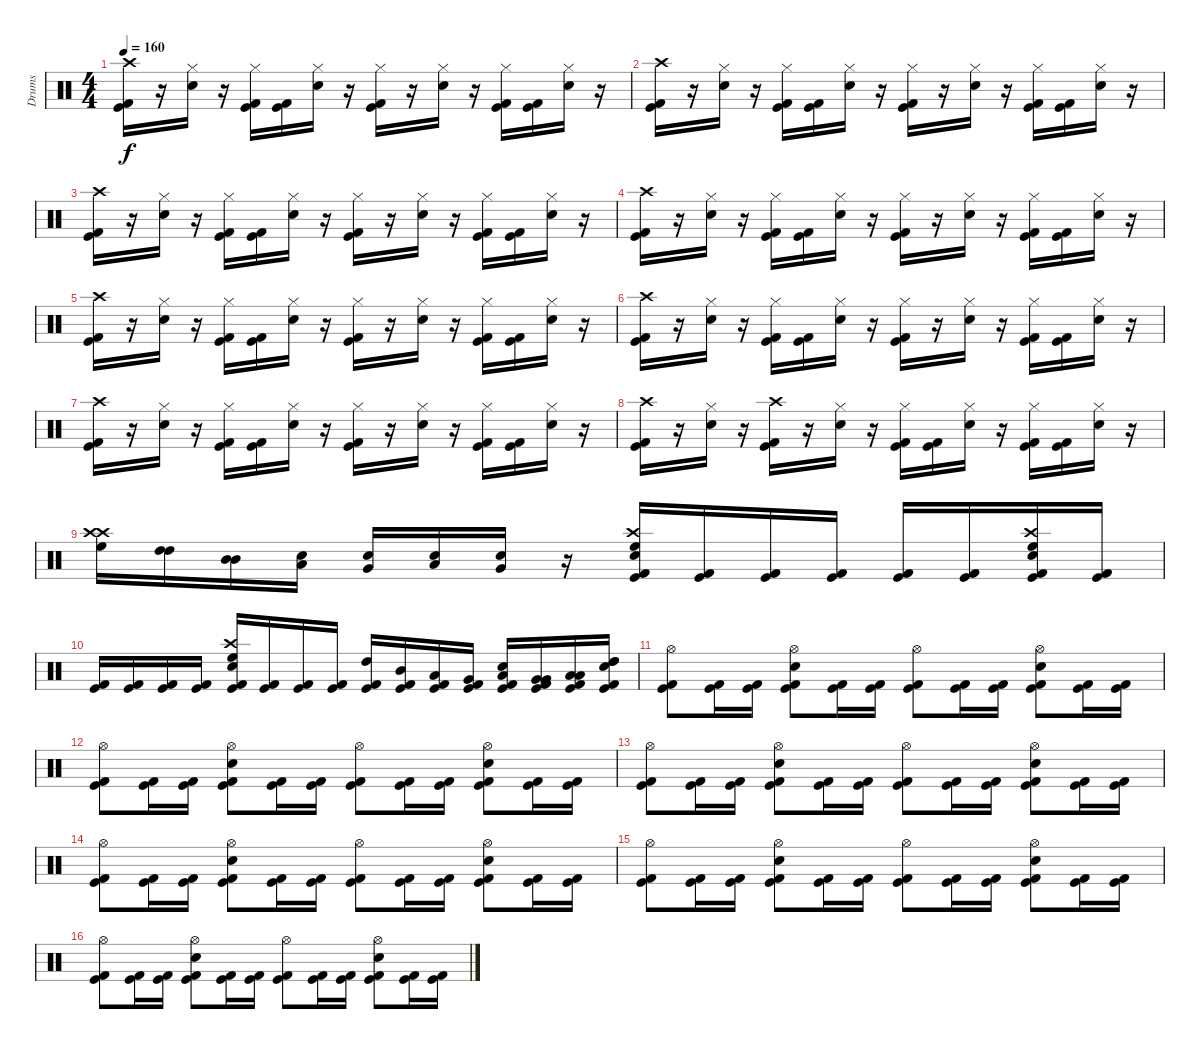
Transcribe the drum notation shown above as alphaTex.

\track ("Drums" "Drums") {instrument percussion}
\staff {score}
\articulation defaults
\ts (4 4)
\tempo 160
\clef neutral
\ks c
("Kick (hit) 2" "Kick (hit)" "Crash high (hit)").16{dy f} r.16 ("Electric Snare (hit)" "Hi-Hat (closed)").16 r.16 ("Kick (hit) 2" "Kick (hit)" "Hi-Hat (closed)").16 ("Kick (hit) 2" "Kick (hit)").16 ("Electric Snare (hit)" "Hi-Hat (closed)").16 r.16 ("Kick (hit) 2" "Kick (hit)" "Hi-Hat (closed)").16 r.16 ("Electric Snare (hit)" "Hi-Hat (closed)").16 r.16 ("Kick (hit) 2" "Kick (hit)" "Hi-Hat (closed)").16 ("Kick (hit) 2" "Kick (hit)").16 ("Electric Snare (hit)" "Hi-Hat (closed)").16 r.16 |
("Kick (hit) 2" "Kick (hit)" "Crash high (hit)").16 r.16 ("Electric Snare (hit)" "Hi-Hat (closed)").16 r.16 ("Kick (hit) 2" "Kick (hit)" "Hi-Hat (closed)").16 ("Kick (hit) 2" "Kick (hit)").16 ("Electric Snare (hit)" "Hi-Hat (closed)").16 r.16 ("Kick (hit) 2" "Kick (hit)" "Hi-Hat (closed)").16 r.16 ("Electric Snare (hit)" "Hi-Hat (closed)").16 r.16 ("Kick (hit) 2" "Kick (hit)" "Hi-Hat (closed)").16 ("Kick (hit) 2" "Kick (hit)").16 ("Electric Snare (hit)" "Hi-Hat (closed)").16 r.16 |
("Kick (hit) 2" "Kick (hit)" "Crash high (hit)").16 r.16 ("Electric Snare (hit)" "Hi-Hat (closed)").16 r.16 ("Kick (hit) 2" "Kick (hit)" "Hi-Hat (closed)").16 ("Kick (hit) 2" "Kick (hit)").16 ("Electric Snare (hit)" "Hi-Hat (closed)").16 r.16 ("Kick (hit) 2" "Kick (hit)" "Hi-Hat (closed)").16 r.16 ("Electric Snare (hit)" "Hi-Hat (closed)").16 r.16 ("Kick (hit) 2" "Kick (hit)" "Hi-Hat (closed)").16 ("Kick (hit) 2" "Kick (hit)").16 ("Electric Snare (hit)" "Hi-Hat (closed)").16 r.16 |
("Kick (hit) 2" "Kick (hit)" "Crash high (hit)").16 r.16 ("Electric Snare (hit)" "Hi-Hat (closed)").16 r.16 ("Kick (hit) 2" "Kick (hit)" "Hi-Hat (closed)").16 ("Kick (hit) 2" "Kick (hit)").16 ("Electric Snare (hit)" "Hi-Hat (closed)").16 r.16 ("Kick (hit) 2" "Kick (hit)" "Hi-Hat (closed)").16 r.16 ("Electric Snare (hit)" "Hi-Hat (closed)").16 r.16 ("Kick (hit) 2" "Kick (hit)" "Hi-Hat (closed)").16 ("Kick (hit) 2" "Kick (hit)").16 ("Electric Snare (hit)" "Hi-Hat (closed)").16 r.16 |
("Kick (hit) 2" "Kick (hit)" "Crash high (hit)").16 r.16 ("Electric Snare (hit)" "Hi-Hat (closed)").16 r.16 ("Kick (hit) 2" "Kick (hit)" "Hi-Hat (closed)").16 ("Kick (hit) 2" "Kick (hit)").16 ("Electric Snare (hit)" "Hi-Hat (closed)").16 r.16 ("Kick (hit) 2" "Kick (hit)" "Hi-Hat (closed)").16 r.16 ("Electric Snare (hit)" "Hi-Hat (closed)").16 r.16 ("Kick (hit) 2" "Kick (hit)" "Hi-Hat (closed)").16 ("Kick (hit) 2" "Kick (hit)").16 ("Electric Snare (hit)" "Hi-Hat (closed)").16 r.16 |
("Kick (hit) 2" "Kick (hit)" "Crash high (hit)").16 r.16 ("Electric Snare (hit)" "Hi-Hat (closed)").16 r.16 ("Kick (hit) 2" "Kick (hit)" "Hi-Hat (closed)").16 ("Kick (hit) 2" "Kick (hit)").16 ("Electric Snare (hit)" "Hi-Hat (closed)").16 r.16 ("Kick (hit) 2" "Kick (hit)" "Hi-Hat (closed)").16 r.16 ("Electric Snare (hit)" "Hi-Hat (closed)").16 r.16 ("Kick (hit) 2" "Kick (hit)" "Hi-Hat (closed)").16 ("Kick (hit) 2" "Kick (hit)").16 ("Electric Snare (hit)" "Hi-Hat (closed)").16 r.16 |
("Kick (hit) 2" "Kick (hit)" "Crash high (hit)").16 r.16 ("Electric Snare (hit)" "Hi-Hat (closed)").16 r.16 ("Kick (hit) 2" "Kick (hit)" "Hi-Hat (closed)").16 ("Kick (hit) 2" "Kick (hit)").16 ("Electric Snare (hit)" "Hi-Hat (closed)").16 r.16 ("Kick (hit) 2" "Kick (hit)" "Hi-Hat (closed)").16 r.16 ("Electric Snare (hit)" "Hi-Hat (closed)").16 r.16 ("Kick (hit) 2" "Kick (hit)" "Hi-Hat (closed)").16 ("Kick (hit) 2" "Kick (hit)").16 ("Electric Snare (hit)" "Hi-Hat (closed)").16 r.16 |
("Kick (hit) 2" "Kick (hit)" "Crash high (hit)").16 r.16 ("Electric Snare (hit)" "Hi-Hat (closed)").16 r.16 ("Kick (hit) 2" "Kick (hit)" "Crash high (hit)").16 r.16 ("Electric Snare (hit)" "Hi-Hat (closed)").16 r.16 ("Kick (hit) 2" "Kick (hit)" "Hi-Hat (closed)").16 ("Kick (hit) 2" "Kick (hit)").16 ("Electric Snare (hit)" "Hi-Hat (closed)").16 r.16 ("Kick (hit) 2" "Kick (hit)" "Hi-Hat (closed)").16 ("Kick (hit) 2" "Kick (hit)").16 ("Electric Snare (hit)" "Hi-Hat (closed)").16 r.16 |
("Crash high (hit)" "Crash high (hit)" "High Floor Tom (hit)").16 ("High Tom (hit)" "High Tom (hit)").16 ("Mid Tom (hit)" "Mid Tom (hit)").16 ("Low Tom (hit)" "Snare (hit)").16 ("Very Low Tom (hit)" "Snare (hit)").16 ("Low Tom (hit)" "Snare (hit)").16 ("Very Low Tom (hit)" "Snare (hit)").16 r.16 ("Kick (hit) 2" "Kick (hit)" "Snare (hit) 2" "High Floor Tom (hit)" "Crash high (hit)").16 ("Kick (hit) 2" "Kick (hit)").16 ("Kick (hit) 2" "Kick (hit)").16 ("Kick (hit) 2" "Kick (hit)").16 ("Kick (hit) 2" "Kick (hit)").16 ("Kick (hit) 2" "Kick (hit)").16 ("Kick (hit) 2" "Kick (hit)" "Snare (hit) 2" "High Floor Tom (hit)" "Crash high (hit)").16 ("Kick (hit) 2" "Kick (hit)").16 |
("Kick (hit) 2" "Kick (hit)").16 ("Kick (hit) 2" "Kick (hit)").16 ("Kick (hit) 2" "Kick (hit)").16 ("Kick (hit) 2" "Kick (hit)").16 ("Kick (hit) 2" "Kick (hit)" "Snare (hit) 2" "High Floor Tom (hit)" "Crash high (hit)").16 ("Kick (hit) 2" "Kick (hit)").16 ("Kick (hit) 2" "Kick (hit)").16 ("Kick (hit) 2" "Kick (hit)").16 ("Kick (hit) 2" "Kick (hit)" "High Tom (hit)").16 ("Kick (hit) 2" "Kick (hit)" "Mid Tom (hit)").16 ("Kick (hit) 2" "Kick (hit)" "Low Tom (hit)").16 ("Kick (hit) 2" "Kick (hit)" "Very Low Tom (hit)").16 ("Kick (hit) 2" "Kick (hit)" "Low Tom (hit)" "Snare (hit)").16 ("Kick (hit) 2" "Kick (hit)" "Very Low Tom (hit)" "Very Low Tom (hit)").16 ("Kick (hit) 2" "Kick (hit)" "Low Floor Tom (hit)" "Low Floor Tom (hit)").16 ("Kick (hit) 2" "Kick (hit)" "High Tom (hit)" "High Tom (hit)" "Snare (hit) 2").16 |
("Kick (hit) 2" "Kick (hit)" "Hi-Hat (open)").8 ("Kick (hit) 2" "Kick (hit)").16 ("Kick (hit) 2" "Kick (hit)").16 ("Kick (hit) 2" "Kick (hit)" "Snare (hit) 2" "Hi-Hat (open)").8 ("Kick (hit) 2" "Kick (hit)").16 ("Kick (hit) 2" "Kick (hit)").16 ("Kick (hit) 2" "Kick (hit)" "Hi-Hat (open)").8 ("Kick (hit) 2" "Kick (hit)").16 ("Kick (hit) 2" "Kick (hit)").16 ("Kick (hit) 2" "Kick (hit)" "Snare (hit) 2" "Hi-Hat (open)").8 ("Kick (hit) 2" "Kick (hit)").16 ("Kick (hit) 2" "Kick (hit)").16 |
("Kick (hit) 2" "Kick (hit)" "Hi-Hat (open)").8 ("Kick (hit) 2" "Kick (hit)").16 ("Kick (hit) 2" "Kick (hit)").16 ("Kick (hit) 2" "Kick (hit)" "Snare (hit) 2" "Hi-Hat (open)").8 ("Kick (hit) 2" "Kick (hit)").16 ("Kick (hit) 2" "Kick (hit)").16 ("Kick (hit) 2" "Kick (hit)" "Hi-Hat (open)").8 ("Kick (hit) 2" "Kick (hit)").16 ("Kick (hit) 2" "Kick (hit)").16 ("Kick (hit) 2" "Kick (hit)" "Snare (hit) 2" "Hi-Hat (open)").8 ("Kick (hit) 2" "Kick (hit)").16 ("Kick (hit) 2" "Kick (hit)").16 |
("Kick (hit) 2" "Kick (hit)" "Hi-Hat (open)").8 ("Kick (hit) 2" "Kick (hit)").16 ("Kick (hit) 2" "Kick (hit)").16 ("Kick (hit) 2" "Kick (hit)" "Snare (hit) 2" "Hi-Hat (open)").8 ("Kick (hit) 2" "Kick (hit)").16 ("Kick (hit) 2" "Kick (hit)").16 ("Kick (hit) 2" "Kick (hit)" "Hi-Hat (open)").8 ("Kick (hit) 2" "Kick (hit)").16 ("Kick (hit) 2" "Kick (hit)").16 ("Kick (hit) 2" "Kick (hit)" "Snare (hit) 2" "Hi-Hat (open)").8 ("Kick (hit) 2" "Kick (hit)").16 ("Kick (hit) 2" "Kick (hit)").16 |
("Kick (hit) 2" "Kick (hit)" "Hi-Hat (open)").8 ("Kick (hit) 2" "Kick (hit)").16 ("Kick (hit) 2" "Kick (hit)").16 ("Kick (hit) 2" "Kick (hit)" "Snare (hit) 2" "Hi-Hat (open)").8 ("Kick (hit) 2" "Kick (hit)").16 ("Kick (hit) 2" "Kick (hit)").16 ("Kick (hit) 2" "Kick (hit)" "Hi-Hat (open)").8 ("Kick (hit) 2" "Kick (hit)").16 ("Kick (hit) 2" "Kick (hit)").16 ("Kick (hit) 2" "Kick (hit)" "Snare (hit) 2" "Hi-Hat (open)").8 ("Kick (hit) 2" "Kick (hit)").16 ("Kick (hit) 2" "Kick (hit)").16 |
("Kick (hit) 2" "Kick (hit)" "Hi-Hat (open)").8 ("Kick (hit) 2" "Kick (hit)").16 ("Kick (hit) 2" "Kick (hit)").16 ("Kick (hit) 2" "Kick (hit)" "Snare (hit) 2" "Hi-Hat (open)").8 ("Kick (hit) 2" "Kick (hit)").16 ("Kick (hit) 2" "Kick (hit)").16 ("Kick (hit) 2" "Kick (hit)" "Hi-Hat (open)").8 ("Kick (hit) 2" "Kick (hit)").16 ("Kick (hit) 2" "Kick (hit)").16 ("Kick (hit) 2" "Kick (hit)" "Snare (hit) 2" "Hi-Hat (open)").8 ("Kick (hit) 2" "Kick (hit)").16 ("Kick (hit) 2" "Kick (hit)").16 |
("Kick (hit) 2" "Kick (hit)" "Hi-Hat (open)").8 ("Kick (hit) 2" "Kick (hit)").16 ("Kick (hit) 2" "Kick (hit)").16 ("Kick (hit) 2" "Kick (hit)" "Snare (hit) 2" "Hi-Hat (open)").8 ("Kick (hit) 2" "Kick (hit)").16 ("Kick (hit) 2" "Kick (hit)").16 ("Kick (hit) 2" "Kick (hit)" "Hi-Hat (open)").8 ("Kick (hit) 2" "Kick (hit)").16 ("Kick (hit) 2" "Kick (hit)").16 ("Kick (hit) 2" "Kick (hit)" "Snare (hit) 2" "Hi-Hat (open)").8 ("Kick (hit) 2" "Kick (hit)").16 ("Kick (hit) 2" "Kick (hit)").16
